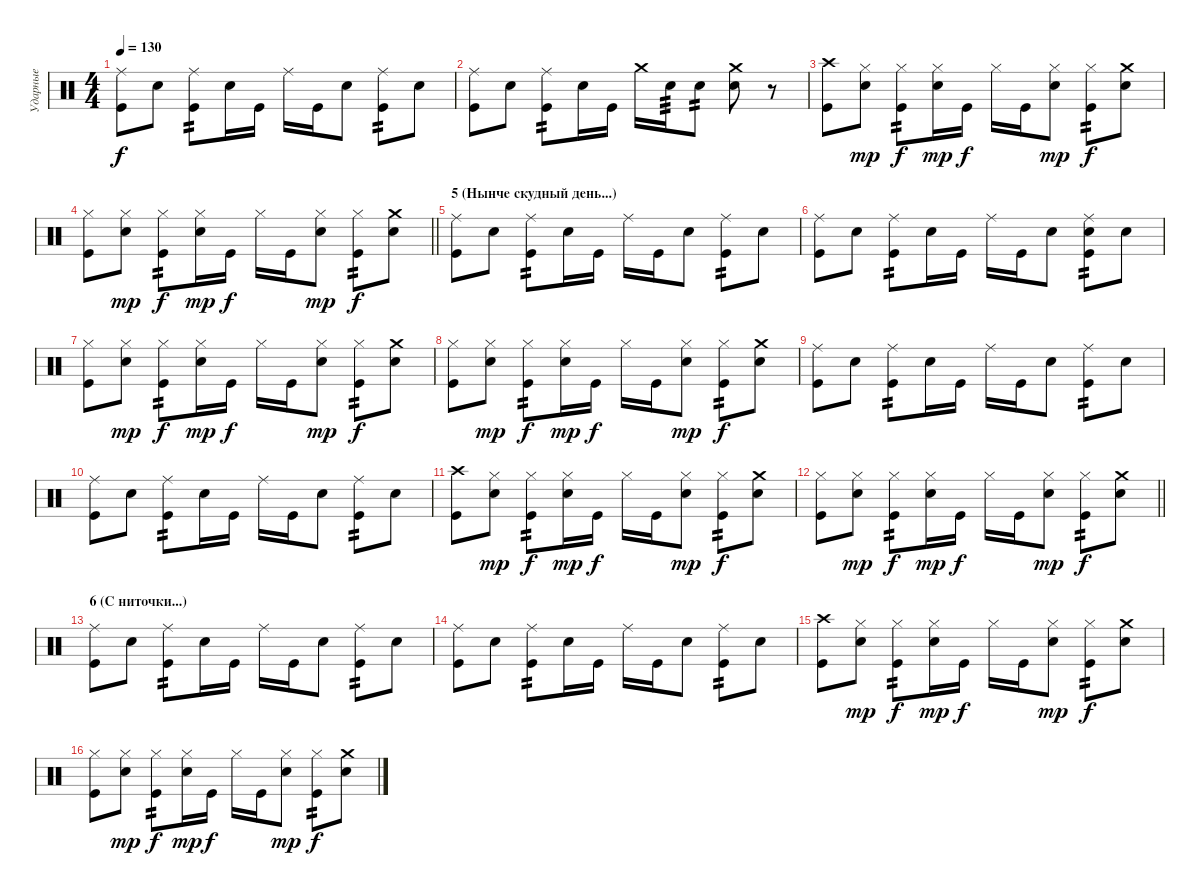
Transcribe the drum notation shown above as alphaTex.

\track ("Ударные" "Ударные") {instrument percussion}
\staff {score}
\articulation defaults
\ts (4 4)
\tempo 130
\clef neutral
\ks c
("Ride (middle)" "Kick (hit)").8{dy f} "Snare (hit) 2".8 ("Ride (middle)" "Kick (hit)").8{tp 2} "Snare (hit) 2".16 "Kick (hit)".16 "Ride (middle)".16 "Kick (hit)".16 "Snare (hit) 2".8 ("Ride (middle)" "Kick (hit)").8{tp 2} "Snare (hit) 2".8 |
("Ride (middle)" "Kick (hit)").8 "Snare (hit) 2".8 ("Ride (middle)" "Kick (hit)").8{tp 2} "Snare (hit) 2".16 "Kick (hit)".16 "Crash medium (hit)".16 "Snare (hit) 2".16{tp 3} "Snare (hit) 2".8{tp 2} ("Crash medium (hit)" "Snare (hit) 2").8 r.8 |
("Crash high (hit)" "Kick (hit)").8 ("Hi-Hat (closed)" "Snare (hit) 2").8{dy mp} ("Hi-Hat (closed)" "Kick (hit)").8{tp 2 dy f} ("Hi-Hat (closed)" "Snare (hit) 2").16{dy mp} "Kick (hit)".16{dy f} "Hi-Hat (closed)".16 "Kick (hit)".16 ("Hi-Hat (closed)" "Snare (hit) 2").8{dy mp} ("Hi-Hat (closed)" "Kick (hit)").8{tp 2 dy f} ("Crash medium (hit)" "Snare (hit) 2").8 |
\barLineRight lightlight
("Hi-Hat (closed)" "Kick (hit)").8 ("Hi-Hat (closed)" "Snare (hit) 2").8{dy mp} ("Hi-Hat (closed)" "Kick (hit)").8{tp 2 dy f} ("Hi-Hat (closed)" "Snare (hit) 2").16{dy mp} "Kick (hit)".16{dy f} "Hi-Hat (closed)".16 "Kick (hit)".16 ("Hi-Hat (closed)" "Snare (hit) 2").8{dy mp} ("Hi-Hat (closed)" "Kick (hit)").8{tp 2 dy f} ("Crash medium (hit)" "Snare (hit) 2").8 |
\section ("" "5 (Нынче скудный день...)")
("Ride (middle)" "Kick (hit)").8 "Snare (hit) 2".8 ("Ride (middle)" "Kick (hit)").8{tp 2} "Snare (hit) 2".16 "Kick (hit)".16 "Ride (middle)".16 "Kick (hit)".16 "Snare (hit) 2".8 ("Ride (middle)" "Kick (hit)").8{tp 2} "Snare (hit) 2".8 |
("Ride (middle)" "Kick (hit)").8 "Snare (hit) 2".8 ("Ride (middle)" "Kick (hit)").8{tp 2} "Snare (hit) 2".16 "Kick (hit)".16 "Ride (middle)".16 "Kick (hit)".16 "Snare (hit) 2".8 ("Ride (middle)" "Snare (hit) 2" "Kick (hit)").8{tp 2} "Snare (hit) 2".8 |
("Hi-Hat (closed)" "Kick (hit)").8 ("Hi-Hat (closed)" "Snare (hit) 2").8{dy mp} ("Hi-Hat (closed)" "Kick (hit)").8{tp 2 dy f} ("Hi-Hat (closed)" "Snare (hit) 2").16{dy mp} "Kick (hit)".16{dy f} "Hi-Hat (closed)".16 "Kick (hit)".16 ("Hi-Hat (closed)" "Snare (hit) 2").8{dy mp} ("Hi-Hat (closed)" "Kick (hit)").8{tp 2 dy f} ("Crash medium (hit)" "Snare (hit) 2").8 |
("Hi-Hat (closed)" "Kick (hit)").8 ("Hi-Hat (closed)" "Snare (hit) 2").8{dy mp} ("Hi-Hat (closed)" "Kick (hit)").8{tp 2 dy f} ("Hi-Hat (closed)" "Snare (hit) 2").16{dy mp} "Kick (hit)".16{dy f} "Hi-Hat (closed)".16 "Kick (hit)".16 ("Hi-Hat (closed)" "Snare (hit) 2").8{dy mp} ("Hi-Hat (closed)" "Kick (hit)").8{tp 2 dy f} ("Crash medium (hit)" "Snare (hit) 2").8 |
("Ride (middle)" "Kick (hit)").8 "Snare (hit) 2".8 ("Ride (middle)" "Kick (hit)").8{tp 2} "Snare (hit) 2".16 "Kick (hit)".16 "Ride (middle)".16 "Kick (hit)".16 "Snare (hit) 2".8 ("Ride (middle)" "Kick (hit)").8{tp 2} "Snare (hit) 2".8 |
("Ride (middle)" "Kick (hit)").8 "Snare (hit) 2".8 ("Ride (middle)" "Kick (hit)").8{tp 2} "Snare (hit) 2".16 "Kick (hit)".16 "Ride (middle)".16 "Kick (hit)".16 "Snare (hit) 2".8 ("Ride (middle)" "Kick (hit)").8{tp 2} "Snare (hit) 2".8 |
("Crash high (hit)" "Kick (hit)").8 ("Hi-Hat (closed)" "Snare (hit) 2").8{dy mp} ("Hi-Hat (closed)" "Kick (hit)").8{tp 2 dy f} ("Hi-Hat (closed)" "Snare (hit) 2").16{dy mp} "Kick (hit)".16{dy f} "Hi-Hat (closed)".16 "Kick (hit)".16 ("Hi-Hat (closed)" "Snare (hit) 2").8{dy mp} ("Hi-Hat (closed)" "Kick (hit)").8{tp 2 dy f} ("Crash medium (hit)" "Snare (hit) 2").8 |
\barLineRight lightlight
("Hi-Hat (closed)" "Kick (hit)").8 ("Hi-Hat (closed)" "Snare (hit) 2").8{dy mp} ("Hi-Hat (closed)" "Kick (hit)").8{tp 2 dy f} ("Hi-Hat (closed)" "Snare (hit) 2").16{dy mp} "Kick (hit)".16{dy f} "Hi-Hat (closed)".16 "Kick (hit)".16 ("Hi-Hat (closed)" "Snare (hit) 2").8{dy mp} ("Hi-Hat (closed)" "Kick (hit)").8{tp 2 dy f} ("Crash medium (hit)" "Snare (hit) 2").8 |
\section ("" "6 (С ниточки...)")
("Ride (middle)" "Kick (hit)").8 "Snare (hit) 2".8 ("Ride (middle)" "Kick (hit)").8{tp 2} "Snare (hit) 2".16 "Kick (hit)".16 "Ride (middle)".16 "Kick (hit)".16 "Snare (hit) 2".8 ("Ride (middle)" "Kick (hit)").8{tp 2} "Snare (hit) 2".8 |
("Ride (middle)" "Kick (hit)").8 "Snare (hit) 2".8 ("Ride (middle)" "Kick (hit)").8{tp 2} "Snare (hit) 2".16 "Kick (hit)".16 "Ride (middle)".16 "Kick (hit)".16 "Snare (hit) 2".8 ("Ride (middle)" "Kick (hit)").8{tp 2} "Snare (hit) 2".8 |
("Crash high (hit)" "Kick (hit)").8 ("Hi-Hat (closed)" "Snare (hit) 2").8{dy mp} ("Hi-Hat (closed)" "Kick (hit)").8{tp 2 dy f} ("Hi-Hat (closed)" "Snare (hit) 2").16{dy mp} "Kick (hit)".16{dy f} "Hi-Hat (closed)".16 "Kick (hit)".16 ("Hi-Hat (closed)" "Snare (hit) 2").8{dy mp} ("Hi-Hat (closed)" "Kick (hit)").8{tp 2 dy f} ("Crash medium (hit)" "Snare (hit) 2").8 |
("Hi-Hat (closed)" "Kick (hit)").8 ("Hi-Hat (closed)" "Snare (hit) 2").8{dy mp} ("Hi-Hat (closed)" "Kick (hit)").8{tp 2 dy f} ("Hi-Hat (closed)" "Snare (hit) 2").16{dy mp} "Kick (hit)".16{dy f} "Hi-Hat (closed)".16 "Kick (hit)".16 ("Hi-Hat (closed)" "Snare (hit) 2").8{dy mp} ("Hi-Hat (closed)" "Kick (hit)").8{tp 2 dy f} ("Crash medium (hit)" "Snare (hit) 2").8
